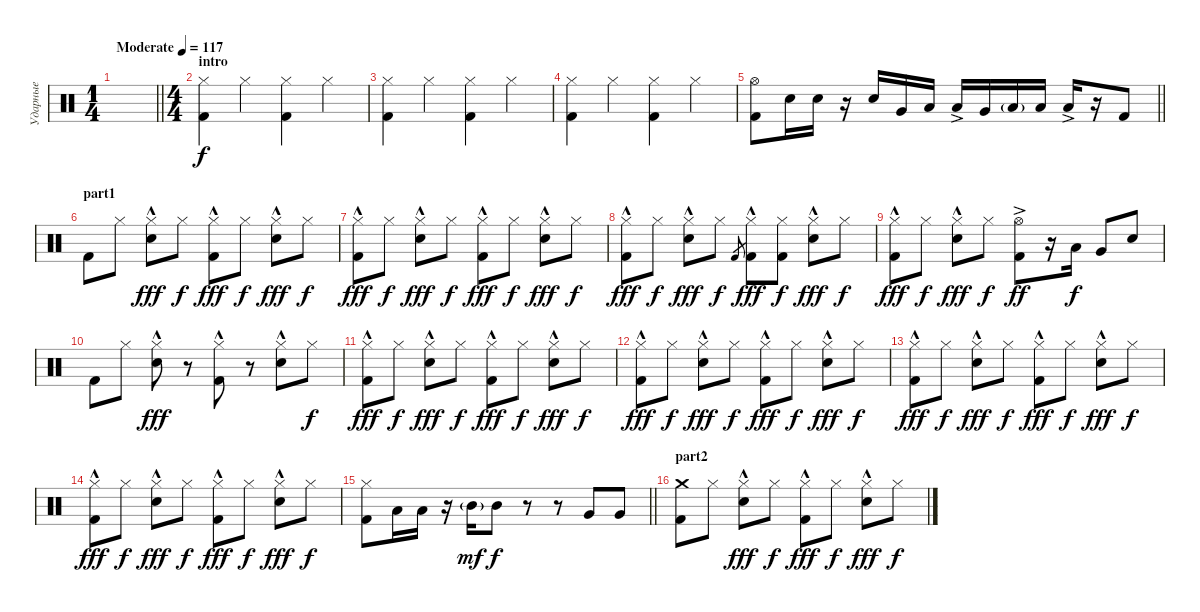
\track ("Ударные" "Ударные") {instrument percussion}
\staff {score}
\articulation defaults
\ts (1 4)
\tempo (117 "Moderate")
\clef neutral
\barLineRight lightlight
\ks c
|
\ts (4 4)
\section ("" "intro")
("Hi-Hat (closed)" "Kick (hit) 2").4 "Hi-Hat (closed)".4 ("Hi-Hat (closed)" "Kick (hit) 2").4 "Hi-Hat (closed)".4 |
("Hi-Hat (closed)" "Kick (hit) 2").4 "Hi-Hat (closed)".4 ("Hi-Hat (closed)" "Kick (hit) 2").4 "Hi-Hat (closed)".4 |
("Hi-Hat (closed)" "Kick (hit) 2").4 "Hi-Hat (closed)".4 ("Hi-Hat (closed)" "Kick (hit) 2").4 "Hi-Hat (closed)".4 |
\barLineRight lightlight
("Hi-Hat (open)" "Kick (hit) 2").8 "Electric Snare (hit)".16 "Electric Snare (hit)".16 r.16 "Electric Snare (hit)".16 "Very Low Tom (hit)".16 "Low Tom (hit)".16 "Low Tom (hit)"{ac}.16 "Very Low Tom (hit)".16 "Low Tom (hit)"{g}.16 "Low Tom (hit)".16 "Low Tom (hit)"{ac}.16 r.16 "Kick (hit) 2".8 |
\section ("" "part1")
"Kick (hit) 2".8 "Hi-Hat (closed)".8 ("Hi-Hat (closed)"{hac} "Electric Snare (hit)").8{dy fff} "Hi-Hat (closed)".8{dy f} ("Hi-Hat (closed)"{hac} "Kick (hit) 2").8{dy fff} "Hi-Hat (closed)".8{dy f} ("Hi-Hat (closed)"{hac} "Electric Snare (hit)").8{dy fff} "Hi-Hat (closed)".8{dy f} |
("Hi-Hat (closed)"{hac} "Kick (hit) 2").8{dy fff} "Hi-Hat (closed)".8{dy f} ("Hi-Hat (closed)"{hac} "Electric Snare (hit)").8{dy fff} "Hi-Hat (closed)".8{dy f} ("Hi-Hat (closed)"{hac} "Kick (hit) 2").8{dy fff} "Hi-Hat (closed)".8{dy f} ("Hi-Hat (closed)"{hac} "Electric Snare (hit)").8{dy fff} "Hi-Hat (closed)".8{dy f} |
("Hi-Hat (closed)"{hac} "Kick (hit) 2").8{dy fff} "Hi-Hat (closed)".8{dy f} ("Hi-Hat (closed)"{hac} "Electric Snare (hit)").8{dy fff} "Hi-Hat (closed)".8{dy f} "Kick (hit) 2".8{gr} ("Hi-Hat (closed)"{hac} "Kick (hit) 2").8{dy fff} ("Hi-Hat (closed)" "Kick (hit) 2").8{dy f} ("Hi-Hat (closed)"{hac} "Electric Snare (hit)").8{dy fff} "Hi-Hat (closed)".8{dy f} |
("Hi-Hat (closed)"{hac} "Kick (hit) 2").8{dy fff} "Hi-Hat (closed)".8{dy f} ("Hi-Hat (closed)"{hac} "Electric Snare (hit)").8{dy fff} "Hi-Hat (closed)".8{dy f} ("Hi-Hat (open)"{ac} "Kick (hit) 2").8{dy ff} r.16 "Low Tom (hit)".16{dy f} "Very Low Tom (hit)".8 "Electric Snare (hit)".8 |
"Kick (hit) 2".8 "Hi-Hat (closed)".8 ("Hi-Hat (closed)"{hac} "Electric Snare (hit)").8{dy fff} r.8 ("Hi-Hat (closed)"{hac} "Kick (hit) 2").8 r.8 ("Hi-Hat (closed)"{hac} "Electric Snare (hit)").8 "Hi-Hat (closed)".8{dy f} |
("Hi-Hat (closed)"{hac} "Kick (hit) 2").8{dy fff} "Hi-Hat (closed)".8{dy f} ("Hi-Hat (closed)"{hac} "Electric Snare (hit)").8{dy fff} "Hi-Hat (closed)".8{dy f} ("Hi-Hat (closed)"{hac} "Kick (hit) 2").8{dy fff} "Hi-Hat (closed)".8{dy f} ("Hi-Hat (closed)"{hac} "Electric Snare (hit)").8{dy fff} "Hi-Hat (closed)".8{dy f} |
("Hi-Hat (closed)"{hac} "Kick (hit) 2").8{dy fff} "Hi-Hat (closed)".8{dy f} ("Hi-Hat (closed)"{hac} "Electric Snare (hit)").8{dy fff} "Hi-Hat (closed)".8{dy f} ("Hi-Hat (closed)"{hac} "Kick (hit) 2").8{dy fff} "Hi-Hat (closed)".8{dy f} ("Hi-Hat (closed)"{hac} "Electric Snare (hit)").8{dy fff} "Hi-Hat (closed)".8{dy f} |
("Hi-Hat (closed)"{hac} "Kick (hit) 2").8{dy fff} "Hi-Hat (closed)".8{dy f} ("Hi-Hat (closed)"{hac} "Electric Snare (hit)").8{dy fff} "Hi-Hat (closed)".8{dy f} ("Hi-Hat (closed)"{hac} "Kick (hit) 2").8{dy fff} "Hi-Hat (closed)".8{dy f} ("Hi-Hat (closed)"{hac} "Electric Snare (hit)").8{dy fff} "Hi-Hat (closed)".8{dy f} |
("Hi-Hat (closed)"{hac} "Kick (hit) 2").8{dy fff} "Hi-Hat (closed)".8{dy f} ("Hi-Hat (closed)"{hac} "Electric Snare (hit)").8{dy fff} "Hi-Hat (closed)".8{dy f} ("Hi-Hat (closed)"{hac} "Kick (hit) 2").8{dy fff} "Hi-Hat (closed)".8{dy f} ("Hi-Hat (closed)"{hac} "Electric Snare (hit)").8{dy fff} "Hi-Hat (closed)".8{dy f} |
\barLineRight lightlight
("Hi-Hat (closed)" "Kick (hit) 2").8 "Low Tom (hit)".16 "Low Tom (hit)".16 r.16 "Mid Tom (hit)"{g}.16{dy mf} "Mid Tom (hit)".8{dy f} r.8 r.8 "Very Low Tom (hit)".8 "Very Low Tom (hit)".8 |
\section ("" "part2")
("Crash medium (hit)" "Kick (hit) 2").8 "Hi-Hat (closed)".8 ("Hi-Hat (closed)"{hac} "Electric Snare (hit)").8{dy fff} "Hi-Hat (closed)".8{dy f} ("Hi-Hat (closed)"{hac} "Kick (hit) 2").8{dy fff} "Hi-Hat (closed)".8{dy f} ("Hi-Hat (closed)"{hac} "Electric Snare (hit)").8{dy fff} "Hi-Hat (closed)".8{dy f}
